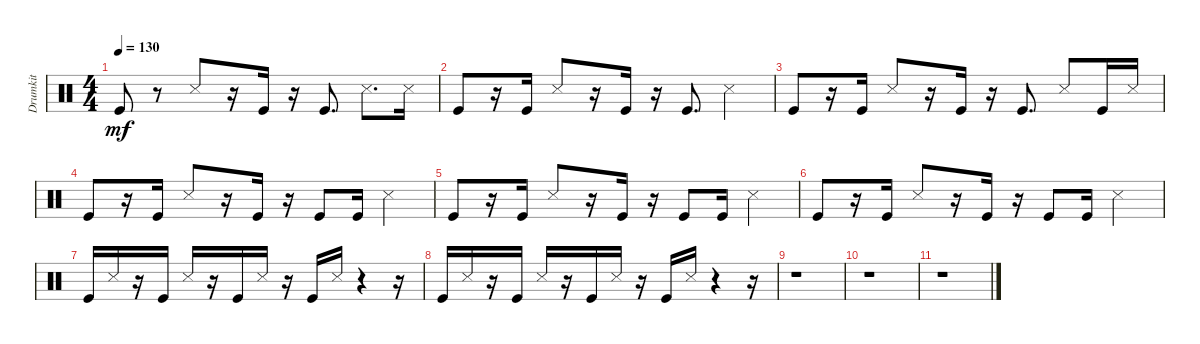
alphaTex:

\track ("Drumkit" "Drumkit") {instrument percussion}
\staff {score}
\articulation defaults
\ts (4 4)
\tempo 130
\clef neutral
\ks c "Kick (hit)".8{dy mf}
r.8 "Snare (side stick) 3".8 r.16 "Kick (hit)".16 r.16 "Kick (hit)".8{d} "Snare (side stick) 3".8{d} "Snare (side stick) 3".16 |
"Kick (hit)".8 r.16 "Kick (hit)".16 "Snare (side stick) 3".8 r.16 "Kick (hit)".16 r.16 "Kick (hit)".8{d} "Snare (side stick) 3".4 |
"Kick (hit)".8 r.16 "Kick (hit)".16 "Snare (side stick) 3".8 r.16 "Kick (hit)".16 r.16 "Kick (hit)".8{d} "Snare (side stick) 3".8 "Kick (hit)".16 "Snare (side stick) 3".16 |
"Kick (hit)".8 r.16 "Kick (hit)".16 "Snare (side stick) 3".8 r.16 "Kick (hit)".16 r.16 "Kick (hit)".8 "Kick (hit)".16 "Snare (side stick) 3".4 |
"Kick (hit)".8 r.16 "Kick (hit)".16 "Snare (side stick) 3".8 r.16 "Kick (hit)".16 r.16 "Kick (hit)".8 "Kick (hit)".16 "Snare (side stick) 3".4 |
"Kick (hit)".8 r.16 "Kick (hit)".16 "Snare (side stick) 3".8 r.16 "Kick (hit)".16 r.16 "Kick (hit)".8 "Kick (hit)".16 "Snare (side stick) 3".4 |
"Kick (hit)".16 "Snare (side stick) 3".16 r.16 "Kick (hit)".16 "Snare (side stick) 3".16 r.16 "Kick (hit)".16 "Snare (side stick) 3".16 r.16 "Kick (hit)".16 "Snare (side stick) 3".16 r.4 r.16 |
"Kick (hit)".16 "Snare (side stick) 3".16 r.16 "Kick (hit)".16 "Snare (side stick) 3".16 r.16 "Kick (hit)".16 "Snare (side stick) 3".16 r.16 "Kick (hit)".16 "Snare (side stick) 3".16 r.4 r.16 |
r.1 |
r.1 |
r.1
